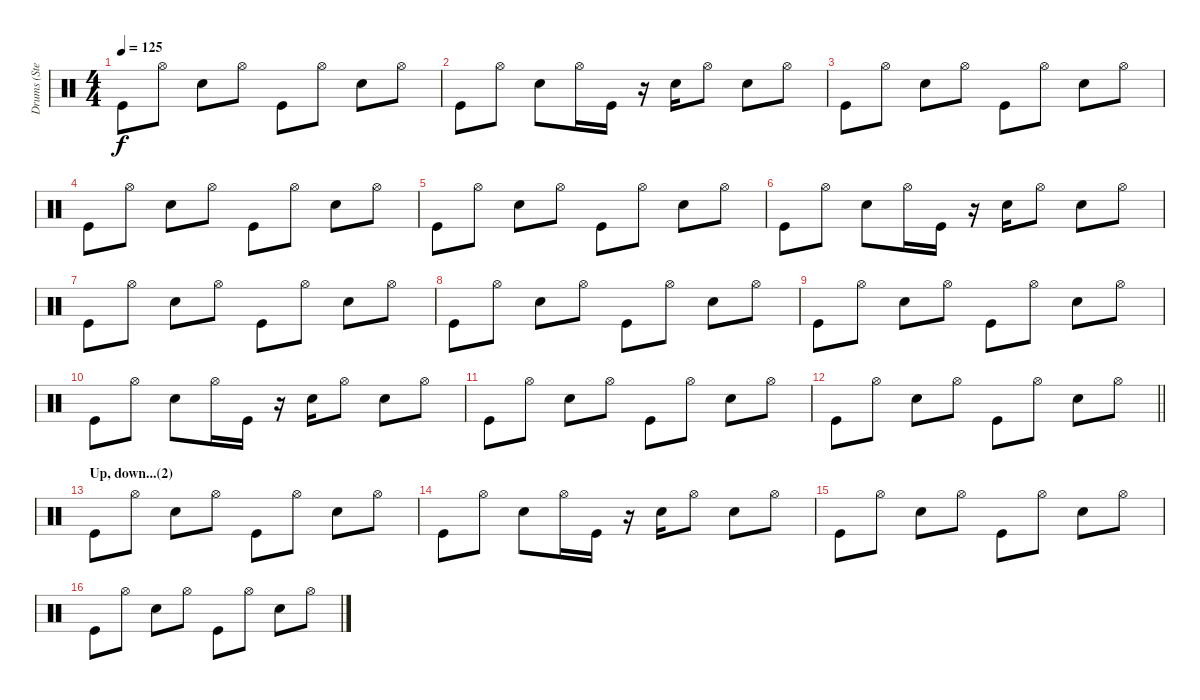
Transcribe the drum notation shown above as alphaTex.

\track ("Drums (Stephen Morris)" "Drums (Ste") {instrument percussion}
\staff {score}
\articulation defaults
\ts (4 4)
\tempo 125
\clef neutral
\ks c "Kick (hit)".8{dy f} "Hi-Hat (open)".8 "Electric Snare (hit)".8 "Hi-Hat (open)".8 "Kick (hit)".8 "Hi-Hat (open)".8 "Electric Snare (hit)".8 "Hi-Hat (open)".8
|
"Kick (hit)".8 "Hi-Hat (open)".8 "Electric Snare (hit)".8 "Hi-Hat (open)".16 "Kick (hit)".16 r.16 "Electric Snare (hit)".16 "Hi-Hat (open)".8 "Electric Snare (hit)".8 "Hi-Hat (open)".8 |
"Kick (hit)".8 "Hi-Hat (open)".8 "Electric Snare (hit)".8 "Hi-Hat (open)".8 "Kick (hit)".8 "Hi-Hat (open)".8 "Electric Snare (hit)".8 "Hi-Hat (open)".8 |
"Kick (hit)".8 "Hi-Hat (open)".8 "Electric Snare (hit)".8 "Hi-Hat (open)".8 "Kick (hit)".8 "Hi-Hat (open)".8 "Electric Snare (hit)".8 "Hi-Hat (open)".8 |
"Kick (hit)".8 "Hi-Hat (open)".8 "Electric Snare (hit)".8 "Hi-Hat (open)".8 "Kick (hit)".8 "Hi-Hat (open)".8 "Electric Snare (hit)".8 "Hi-Hat (open)".8 |
"Kick (hit)".8 "Hi-Hat (open)".8 "Electric Snare (hit)".8 "Hi-Hat (open)".16 "Kick (hit)".16 r.16 "Electric Snare (hit)".16 "Hi-Hat (open)".8 "Electric Snare (hit)".8 "Hi-Hat (open)".8 |
"Kick (hit)".8 "Hi-Hat (open)".8 "Electric Snare (hit)".8 "Hi-Hat (open)".8 "Kick (hit)".8 "Hi-Hat (open)".8 "Electric Snare (hit)".8 "Hi-Hat (open)".8 |
"Kick (hit)".8 "Hi-Hat (open)".8 "Electric Snare (hit)".8 "Hi-Hat (open)".8 "Kick (hit)".8 "Hi-Hat (open)".8 "Electric Snare (hit)".8 "Hi-Hat (open)".8 |
"Kick (hit)".8 "Hi-Hat (open)".8 "Electric Snare (hit)".8 "Hi-Hat (open)".8 "Kick (hit)".8 "Hi-Hat (open)".8 "Electric Snare (hit)".8 "Hi-Hat (open)".8 |
"Kick (hit)".8 "Hi-Hat (open)".8 "Electric Snare (hit)".8 "Hi-Hat (open)".16 "Kick (hit)".16 r.16 "Electric Snare (hit)".16 "Hi-Hat (open)".8 "Electric Snare (hit)".8 "Hi-Hat (open)".8 |
"Kick (hit)".8 "Hi-Hat (open)".8 "Electric Snare (hit)".8 "Hi-Hat (open)".8 "Kick (hit)".8 "Hi-Hat (open)".8 "Electric Snare (hit)".8 "Hi-Hat (open)".8 |
\barLineRight lightlight "Kick (hit)".8 "Hi-Hat (open)".8 "Electric Snare (hit)".8 "Hi-Hat (open)".8 "Kick (hit)".8 "Hi-Hat (open)".8 "Electric Snare (hit)".8 "Hi-Hat (open)".8
|
\section ("" "Up, down...(2)")
"Kick (hit)".8 "Hi-Hat (open)".8 "Electric Snare (hit)".8 "Hi-Hat (open)".8 "Kick (hit)".8 "Hi-Hat (open)".8 "Electric Snare (hit)".8 "Hi-Hat (open)".8 |
"Kick (hit)".8 "Hi-Hat (open)".8 "Electric Snare (hit)".8 "Hi-Hat (open)".16 "Kick (hit)".16 r.16 "Electric Snare (hit)".16 "Hi-Hat (open)".8 "Electric Snare (hit)".8 "Hi-Hat (open)".8 |
"Kick (hit)".8 "Hi-Hat (open)".8 "Electric Snare (hit)".8 "Hi-Hat (open)".8 "Kick (hit)".8 "Hi-Hat (open)".8 "Electric Snare (hit)".8 "Hi-Hat (open)".8 |
"Kick (hit)".8 "Hi-Hat (open)".8 "Electric Snare (hit)".8 "Hi-Hat (open)".8 "Kick (hit)".8 "Hi-Hat (open)".8 "Electric Snare (hit)".8 "Hi-Hat (open)".8
